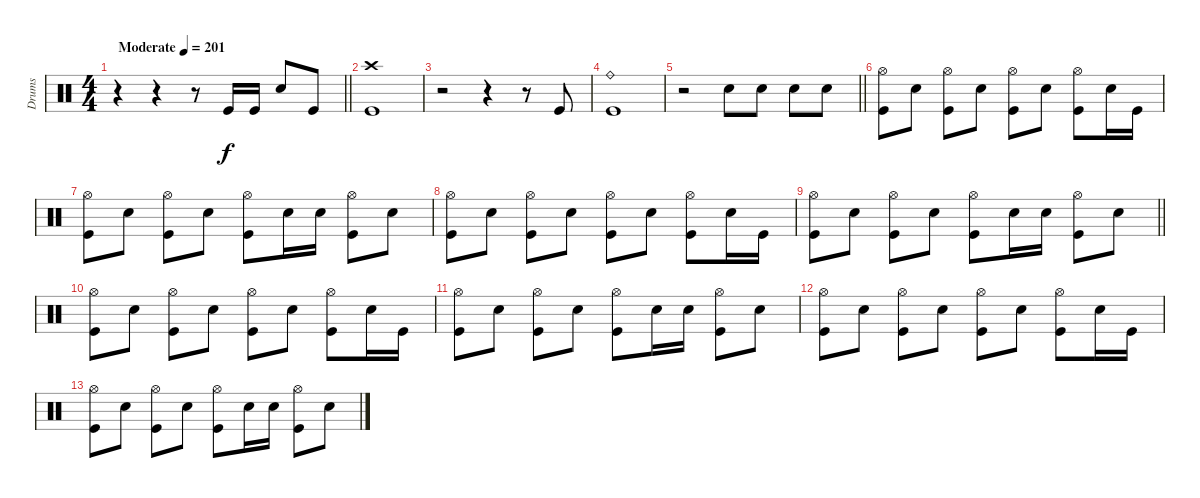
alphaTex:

\track ("Drums" "Drums") {instrument percussion}
\staff
\articulation defaults
\ts (4 4)
\tempo (201 "Moderate")
\clef neutral
\barLineRight lightlight
\ks c
r.4{dy f} r.4 r.8 "Kick (hit)".16 "Kick (hit)".16 "Electric Snare (hit)".8 "Kick (hit)".8 |
("Crash high (hit)" "Kick (hit)").1 |
r.2 r.4 r.8 "Kick (hit)".8 |
("Ride (bell)" "Kick (hit)").1 |
\barLineRight lightlight
r.2 "Electric Snare (hit)".8 "Electric Snare (hit)".8 "Electric Snare (hit)".8 "Electric Snare (hit)".8 |
\section ("" "")
("Hi-Hat (open)" "Kick (hit)").8 "Electric Snare (hit)".8 ("Hi-Hat (open)" "Kick (hit)").8 "Electric Snare (hit)".8 ("Hi-Hat (open)" "Kick (hit)").8 "Electric Snare (hit)".8 ("Hi-Hat (open)" "Kick (hit)").8 "Electric Snare (hit)".16 "Kick (hit)".16 |
("Hi-Hat (open)" "Kick (hit)").8 "Electric Snare (hit)".8 ("Hi-Hat (open)" "Kick (hit)").8 "Electric Snare (hit)".8 ("Hi-Hat (open)" "Kick (hit)").8 "Electric Snare (hit)".16 "Electric Snare (hit)".16 ("Hi-Hat (open)" "Kick (hit)").8 "Electric Snare (hit)".8 |
("Hi-Hat (open)" "Kick (hit)").8 "Electric Snare (hit)".8 ("Hi-Hat (open)" "Kick (hit)").8 "Electric Snare (hit)".8 ("Hi-Hat (open)" "Kick (hit)").8 "Electric Snare (hit)".8 ("Hi-Hat (open)" "Kick (hit)").8 "Electric Snare (hit)".16 "Kick (hit)".16 |
\barLineRight lightlight
("Hi-Hat (open)" "Kick (hit)").8 "Electric Snare (hit)".8 ("Hi-Hat (open)" "Kick (hit)").8 "Electric Snare (hit)".8 ("Hi-Hat (open)" "Kick (hit)").8 "Electric Snare (hit)".16 "Electric Snare (hit)".16 ("Hi-Hat (open)" "Kick (hit)").8 "Electric Snare (hit)".8 |
("Hi-Hat (open)" "Kick (hit)").8 "Electric Snare (hit)".8 ("Hi-Hat (open)" "Kick (hit)").8 "Electric Snare (hit)".8 ("Hi-Hat (open)" "Kick (hit)").8 "Electric Snare (hit)".8 ("Hi-Hat (open)" "Kick (hit)").8 "Electric Snare (hit)".16 "Kick (hit)".16 |
("Hi-Hat (open)" "Kick (hit)").8 "Electric Snare (hit)".8 ("Hi-Hat (open)" "Kick (hit)").8 "Electric Snare (hit)".8 ("Hi-Hat (open)" "Kick (hit)").8 "Electric Snare (hit)".16 "Electric Snare (hit)".16 ("Hi-Hat (open)" "Kick (hit)").8 "Electric Snare (hit)".8 |
("Hi-Hat (open)" "Kick (hit)").8 "Electric Snare (hit)".8 ("Hi-Hat (open)" "Kick (hit)").8 "Electric Snare (hit)".8 ("Hi-Hat (open)" "Kick (hit)").8 "Electric Snare (hit)".8 ("Hi-Hat (open)" "Kick (hit)").8 "Electric Snare (hit)".16 "Kick (hit)".16 |
("Hi-Hat (open)" "Kick (hit)").8 "Electric Snare (hit)".8 ("Hi-Hat (open)" "Kick (hit)").8 "Electric Snare (hit)".8 ("Hi-Hat (open)" "Kick (hit)").8 "Electric Snare (hit)".16 "Electric Snare (hit)".16 ("Hi-Hat (open)" "Kick (hit)").8 "Electric Snare (hit)".8
